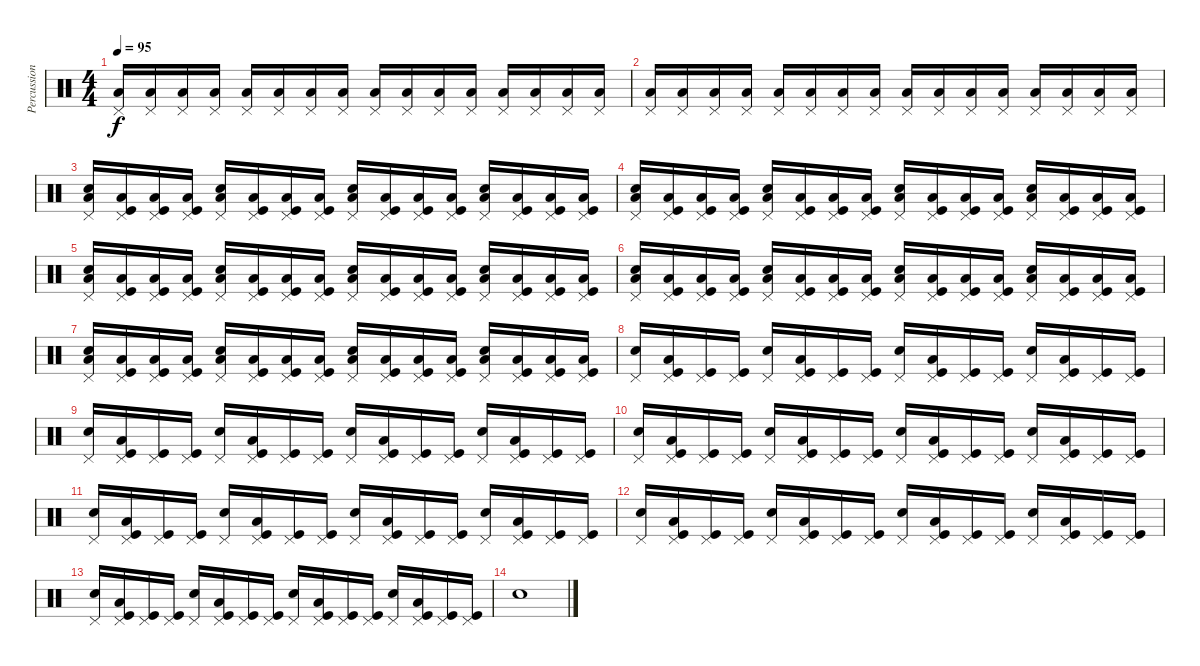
\track ("Percussion" "Percussion") {instrument percussion}
\staff {score}
\articulation defaults
\ts (4 4)
\tempo 95
\clef neutral
\ks c
("Pedal Hi-Hat (hit)" "Low Floor Tom (hit)").16{dy f} ("Pedal Hi-Hat (hit)" "Low Floor Tom (hit)").16 ("Pedal Hi-Hat (hit)" "Low Floor Tom (hit)").16 ("Pedal Hi-Hat (hit)" "Low Floor Tom (hit)").16 ("Pedal Hi-Hat (hit)" "Low Floor Tom (hit)").16 ("Pedal Hi-Hat (hit)" "Low Floor Tom (hit)").16 ("Pedal Hi-Hat (hit)" "Low Floor Tom (hit)").16 ("Pedal Hi-Hat (hit)" "Low Floor Tom (hit)").16 ("Pedal Hi-Hat (hit)" "Low Floor Tom (hit)").16 ("Pedal Hi-Hat (hit)" "Low Floor Tom (hit)").16 ("Pedal Hi-Hat (hit)" "Low Floor Tom (hit)").16 ("Pedal Hi-Hat (hit)" "Low Floor Tom (hit)").16 ("Pedal Hi-Hat (hit)" "Low Floor Tom (hit)").16 ("Pedal Hi-Hat (hit)" "Low Floor Tom (hit)").16 ("Pedal Hi-Hat (hit)" "Low Floor Tom (hit)").16 ("Pedal Hi-Hat (hit)" "Low Floor Tom (hit)").16 |
("Pedal Hi-Hat (hit)" "Low Floor Tom (hit)").16 ("Pedal Hi-Hat (hit)" "Low Floor Tom (hit)").16 ("Pedal Hi-Hat (hit)" "Low Floor Tom (hit)").16 ("Pedal Hi-Hat (hit)" "Low Floor Tom (hit)").16 ("Pedal Hi-Hat (hit)" "Low Floor Tom (hit)").16 ("Pedal Hi-Hat (hit)" "Low Floor Tom (hit)").16 ("Pedal Hi-Hat (hit)" "Low Floor Tom (hit)").16 ("Pedal Hi-Hat (hit)" "Low Floor Tom (hit)").16 ("Pedal Hi-Hat (hit)" "Low Floor Tom (hit)").16 ("Pedal Hi-Hat (hit)" "Low Floor Tom (hit)").16 ("Pedal Hi-Hat (hit)" "Low Floor Tom (hit)").16 ("Pedal Hi-Hat (hit)" "Low Floor Tom (hit)").16 ("Pedal Hi-Hat (hit)" "Low Floor Tom (hit)").16 ("Pedal Hi-Hat (hit)" "Low Floor Tom (hit)").16 ("Pedal Hi-Hat (hit)" "Low Floor Tom (hit)").16 ("Pedal Hi-Hat (hit)" "Low Floor Tom (hit)").16 |
("Pedal Hi-Hat (hit)" "Electric Snare (hit)" "Low Floor Tom (hit)").16 ("Pedal Hi-Hat (hit)" "Kick (hit)" "Low Floor Tom (hit)").16 ("Pedal Hi-Hat (hit)" "Kick (hit)" "Low Floor Tom (hit)").16 ("Pedal Hi-Hat (hit)" "Kick (hit)" "Low Floor Tom (hit)").16 ("Pedal Hi-Hat (hit)" "Electric Snare (hit)" "Low Floor Tom (hit)").16 ("Pedal Hi-Hat (hit)" "Kick (hit)" "Low Floor Tom (hit)").16 ("Pedal Hi-Hat (hit)" "Kick (hit)" "Low Floor Tom (hit)").16 ("Pedal Hi-Hat (hit)" "Kick (hit)" "Low Floor Tom (hit)").16 ("Pedal Hi-Hat (hit)" "Electric Snare (hit)" "Low Floor Tom (hit)").16 ("Pedal Hi-Hat (hit)" "Kick (hit)" "Low Floor Tom (hit)").16 ("Pedal Hi-Hat (hit)" "Kick (hit)" "Low Floor Tom (hit)").16 ("Pedal Hi-Hat (hit)" "Kick (hit)" "Low Floor Tom (hit)").16 ("Pedal Hi-Hat (hit)" "Electric Snare (hit)" "Low Floor Tom (hit)").16 ("Pedal Hi-Hat (hit)" "Kick (hit)" "Low Floor Tom (hit)").16 ("Pedal Hi-Hat (hit)" "Kick (hit)" "Low Floor Tom (hit)").16 ("Pedal Hi-Hat (hit)" "Kick (hit)" "Low Floor Tom (hit)").16 |
("Pedal Hi-Hat (hit)" "Electric Snare (hit)" "Low Floor Tom (hit)").16 ("Pedal Hi-Hat (hit)" "Kick (hit)" "Low Floor Tom (hit)").16 ("Pedal Hi-Hat (hit)" "Kick (hit)" "Low Floor Tom (hit)").16 ("Pedal Hi-Hat (hit)" "Kick (hit)" "Low Floor Tom (hit)").16 ("Pedal Hi-Hat (hit)" "Electric Snare (hit)" "Low Floor Tom (hit)").16 ("Pedal Hi-Hat (hit)" "Kick (hit)" "Low Floor Tom (hit)").16 ("Pedal Hi-Hat (hit)" "Kick (hit)" "Low Floor Tom (hit)").16 ("Pedal Hi-Hat (hit)" "Kick (hit)" "Low Floor Tom (hit)").16 ("Pedal Hi-Hat (hit)" "Electric Snare (hit)" "Low Floor Tom (hit)").16 ("Pedal Hi-Hat (hit)" "Kick (hit)" "Low Floor Tom (hit)").16 ("Pedal Hi-Hat (hit)" "Kick (hit)" "Low Floor Tom (hit)").16 ("Pedal Hi-Hat (hit)" "Kick (hit)" "Low Floor Tom (hit)").16 ("Pedal Hi-Hat (hit)" "Electric Snare (hit)" "Low Floor Tom (hit)").16 ("Pedal Hi-Hat (hit)" "Kick (hit)" "Low Floor Tom (hit)").16 ("Pedal Hi-Hat (hit)" "Kick (hit)" "Low Floor Tom (hit)").16 ("Pedal Hi-Hat (hit)" "Kick (hit)" "Low Floor Tom (hit)").16 |
("Pedal Hi-Hat (hit)" "Electric Snare (hit)" "Low Floor Tom (hit)").16 ("Pedal Hi-Hat (hit)" "Kick (hit)" "Low Floor Tom (hit)").16 ("Pedal Hi-Hat (hit)" "Kick (hit)" "Low Floor Tom (hit)").16 ("Pedal Hi-Hat (hit)" "Kick (hit)" "Low Floor Tom (hit)").16 ("Pedal Hi-Hat (hit)" "Electric Snare (hit)" "Low Floor Tom (hit)").16 ("Pedal Hi-Hat (hit)" "Kick (hit)" "Low Floor Tom (hit)").16 ("Pedal Hi-Hat (hit)" "Kick (hit)" "Low Floor Tom (hit)").16 ("Pedal Hi-Hat (hit)" "Kick (hit)" "Low Floor Tom (hit)").16 ("Pedal Hi-Hat (hit)" "Electric Snare (hit)" "Low Floor Tom (hit)").16 ("Pedal Hi-Hat (hit)" "Kick (hit)" "Low Floor Tom (hit)").16 ("Pedal Hi-Hat (hit)" "Kick (hit)" "Low Floor Tom (hit)").16 ("Pedal Hi-Hat (hit)" "Kick (hit)" "Low Floor Tom (hit)").16 ("Pedal Hi-Hat (hit)" "Electric Snare (hit)" "Low Floor Tom (hit)").16 ("Pedal Hi-Hat (hit)" "Kick (hit)" "Low Floor Tom (hit)").16 ("Pedal Hi-Hat (hit)" "Kick (hit)" "Low Floor Tom (hit)").16 ("Pedal Hi-Hat (hit)" "Kick (hit)" "Low Floor Tom (hit)").16 |
("Pedal Hi-Hat (hit)" "Electric Snare (hit)" "Low Floor Tom (hit)").16 ("Pedal Hi-Hat (hit)" "Kick (hit)" "Low Floor Tom (hit)").16 ("Pedal Hi-Hat (hit)" "Kick (hit)" "Low Floor Tom (hit)").16 ("Pedal Hi-Hat (hit)" "Kick (hit)" "Low Floor Tom (hit)").16 ("Pedal Hi-Hat (hit)" "Electric Snare (hit)" "Low Floor Tom (hit)").16 ("Pedal Hi-Hat (hit)" "Kick (hit)" "Low Floor Tom (hit)").16 ("Pedal Hi-Hat (hit)" "Kick (hit)" "Low Floor Tom (hit)").16 ("Pedal Hi-Hat (hit)" "Kick (hit)" "Low Floor Tom (hit)").16 ("Pedal Hi-Hat (hit)" "Electric Snare (hit)" "Low Floor Tom (hit)").16 ("Pedal Hi-Hat (hit)" "Kick (hit)" "Low Floor Tom (hit)").16 ("Pedal Hi-Hat (hit)" "Kick (hit)" "Low Floor Tom (hit)").16 ("Pedal Hi-Hat (hit)" "Kick (hit)" "Low Floor Tom (hit)").16 ("Pedal Hi-Hat (hit)" "Electric Snare (hit)" "Low Floor Tom (hit)").16 ("Pedal Hi-Hat (hit)" "Kick (hit)" "Low Floor Tom (hit)").16 ("Pedal Hi-Hat (hit)" "Kick (hit)" "Low Floor Tom (hit)").16 ("Pedal Hi-Hat (hit)" "Kick (hit)" "Low Floor Tom (hit)").16 |
("Pedal Hi-Hat (hit)" "Electric Snare (hit)" "Low Floor Tom (hit)").16 ("Pedal Hi-Hat (hit)" "Kick (hit)" "Low Floor Tom (hit)").16 ("Pedal Hi-Hat (hit)" "Kick (hit)" "Low Floor Tom (hit)").16 ("Pedal Hi-Hat (hit)" "Kick (hit)" "Low Floor Tom (hit)").16 ("Pedal Hi-Hat (hit)" "Electric Snare (hit)" "Low Floor Tom (hit)").16 ("Pedal Hi-Hat (hit)" "Kick (hit)" "Low Floor Tom (hit)").16 ("Pedal Hi-Hat (hit)" "Kick (hit)" "Low Floor Tom (hit)").16 ("Pedal Hi-Hat (hit)" "Kick (hit)" "Low Floor Tom (hit)").16 ("Pedal Hi-Hat (hit)" "Electric Snare (hit)" "Low Floor Tom (hit)").16 ("Pedal Hi-Hat (hit)" "Kick (hit)" "Low Floor Tom (hit)").16 ("Pedal Hi-Hat (hit)" "Kick (hit)" "Low Floor Tom (hit)").16 ("Pedal Hi-Hat (hit)" "Kick (hit)" "Low Floor Tom (hit)").16 ("Pedal Hi-Hat (hit)" "Electric Snare (hit)" "Low Floor Tom (hit)").16 ("Pedal Hi-Hat (hit)" "Kick (hit)" "Low Floor Tom (hit)").16 ("Pedal Hi-Hat (hit)" "Kick (hit)" "Low Floor Tom (hit)").16 ("Pedal Hi-Hat (hit)" "Kick (hit)" "Low Floor Tom (hit)").16 |
("Pedal Hi-Hat (hit)" "Electric Snare (hit)").16 ("Pedal Hi-Hat (hit)" "Kick (hit)" "Low Floor Tom (hit)").16 ("Pedal Hi-Hat (hit)" "Kick (hit)").16 ("Pedal Hi-Hat (hit)" "Kick (hit)").16 ("Pedal Hi-Hat (hit)" "Electric Snare (hit)").16 ("Pedal Hi-Hat (hit)" "Kick (hit)" "Low Floor Tom (hit)").16 ("Pedal Hi-Hat (hit)" "Kick (hit)").16 ("Pedal Hi-Hat (hit)" "Kick (hit)").16 ("Pedal Hi-Hat (hit)" "Electric Snare (hit)").16 ("Pedal Hi-Hat (hit)" "Kick (hit)" "Low Floor Tom (hit)").16 ("Pedal Hi-Hat (hit)" "Kick (hit)").16 ("Pedal Hi-Hat (hit)" "Kick (hit)").16 ("Pedal Hi-Hat (hit)" "Electric Snare (hit)").16 ("Pedal Hi-Hat (hit)" "Kick (hit)" "Low Floor Tom (hit)").16 ("Pedal Hi-Hat (hit)" "Kick (hit)").16 ("Pedal Hi-Hat (hit)" "Kick (hit)").16 |
("Pedal Hi-Hat (hit)" "Electric Snare (hit)").16 ("Pedal Hi-Hat (hit)" "Kick (hit)" "Low Floor Tom (hit)").16 ("Pedal Hi-Hat (hit)" "Kick (hit)").16 ("Pedal Hi-Hat (hit)" "Kick (hit)").16 ("Pedal Hi-Hat (hit)" "Electric Snare (hit)").16 ("Pedal Hi-Hat (hit)" "Kick (hit)" "Low Floor Tom (hit)").16 ("Pedal Hi-Hat (hit)" "Kick (hit)").16 ("Pedal Hi-Hat (hit)" "Kick (hit)").16 ("Pedal Hi-Hat (hit)" "Electric Snare (hit)").16 ("Pedal Hi-Hat (hit)" "Kick (hit)" "Low Floor Tom (hit)").16 ("Pedal Hi-Hat (hit)" "Kick (hit)").16 ("Pedal Hi-Hat (hit)" "Kick (hit)").16 ("Pedal Hi-Hat (hit)" "Electric Snare (hit)").16 ("Pedal Hi-Hat (hit)" "Kick (hit)" "Low Floor Tom (hit)").16 ("Pedal Hi-Hat (hit)" "Kick (hit)").16 ("Pedal Hi-Hat (hit)" "Kick (hit)").16 |
("Pedal Hi-Hat (hit)" "Electric Snare (hit)").16 ("Pedal Hi-Hat (hit)" "Kick (hit)" "Low Floor Tom (hit)").16 ("Pedal Hi-Hat (hit)" "Kick (hit)").16 ("Pedal Hi-Hat (hit)" "Kick (hit)").16 ("Pedal Hi-Hat (hit)" "Electric Snare (hit)").16 ("Pedal Hi-Hat (hit)" "Kick (hit)" "Low Floor Tom (hit)").16 ("Pedal Hi-Hat (hit)" "Kick (hit)").16 ("Pedal Hi-Hat (hit)" "Kick (hit)").16 ("Pedal Hi-Hat (hit)" "Electric Snare (hit)").16 ("Pedal Hi-Hat (hit)" "Kick (hit)" "Low Floor Tom (hit)").16 ("Pedal Hi-Hat (hit)" "Kick (hit)").16 ("Pedal Hi-Hat (hit)" "Kick (hit)").16 ("Pedal Hi-Hat (hit)" "Electric Snare (hit)").16 ("Pedal Hi-Hat (hit)" "Kick (hit)" "Low Floor Tom (hit)").16 ("Pedal Hi-Hat (hit)" "Kick (hit)").16 ("Pedal Hi-Hat (hit)" "Kick (hit)").16 |
("Pedal Hi-Hat (hit)" "Electric Snare (hit)").16 ("Pedal Hi-Hat (hit)" "Kick (hit)" "Low Floor Tom (hit)").16 ("Pedal Hi-Hat (hit)" "Kick (hit)").16 ("Pedal Hi-Hat (hit)" "Kick (hit)").16 ("Pedal Hi-Hat (hit)" "Electric Snare (hit)").16 ("Pedal Hi-Hat (hit)" "Kick (hit)" "Low Floor Tom (hit)").16 ("Pedal Hi-Hat (hit)" "Kick (hit)").16 ("Pedal Hi-Hat (hit)" "Kick (hit)").16 ("Pedal Hi-Hat (hit)" "Electric Snare (hit)").16 ("Pedal Hi-Hat (hit)" "Kick (hit)" "Low Floor Tom (hit)").16 ("Pedal Hi-Hat (hit)" "Kick (hit)").16 ("Pedal Hi-Hat (hit)" "Kick (hit)").16 ("Pedal Hi-Hat (hit)" "Electric Snare (hit)").16 ("Pedal Hi-Hat (hit)" "Kick (hit)" "Low Floor Tom (hit)").16 ("Pedal Hi-Hat (hit)" "Kick (hit)").16 ("Pedal Hi-Hat (hit)" "Kick (hit)").16 |
("Pedal Hi-Hat (hit)" "Electric Snare (hit)").16 ("Pedal Hi-Hat (hit)" "Kick (hit)" "Low Floor Tom (hit)").16 ("Pedal Hi-Hat (hit)" "Kick (hit)").16 ("Pedal Hi-Hat (hit)" "Kick (hit)").16 ("Pedal Hi-Hat (hit)" "Electric Snare (hit)").16 ("Pedal Hi-Hat (hit)" "Kick (hit)" "Low Floor Tom (hit)").16 ("Pedal Hi-Hat (hit)" "Kick (hit)").16 ("Pedal Hi-Hat (hit)" "Kick (hit)").16 ("Pedal Hi-Hat (hit)" "Electric Snare (hit)").16 ("Pedal Hi-Hat (hit)" "Kick (hit)" "Low Floor Tom (hit)").16 ("Pedal Hi-Hat (hit)" "Kick (hit)").16 ("Pedal Hi-Hat (hit)" "Kick (hit)").16 ("Pedal Hi-Hat (hit)" "Electric Snare (hit)").16 ("Pedal Hi-Hat (hit)" "Kick (hit)" "Low Floor Tom (hit)").16 ("Pedal Hi-Hat (hit)" "Kick (hit)").16 ("Pedal Hi-Hat (hit)" "Kick (hit)").16 |
("Pedal Hi-Hat (hit)" "Electric Snare (hit)").16 ("Pedal Hi-Hat (hit)" "Kick (hit)" "Low Floor Tom (hit)").16 ("Pedal Hi-Hat (hit)" "Kick (hit)").16 ("Pedal Hi-Hat (hit)" "Kick (hit)").16 ("Pedal Hi-Hat (hit)" "Electric Snare (hit)").16 ("Pedal Hi-Hat (hit)" "Kick (hit)" "Low Floor Tom (hit)").16 ("Pedal Hi-Hat (hit)" "Kick (hit)").16 ("Pedal Hi-Hat (hit)" "Kick (hit)").16 ("Pedal Hi-Hat (hit)" "Electric Snare (hit)").16 ("Pedal Hi-Hat (hit)" "Kick (hit)" "Low Floor Tom (hit)").16 ("Pedal Hi-Hat (hit)" "Kick (hit)").16 ("Pedal Hi-Hat (hit)" "Kick (hit)").16 ("Pedal Hi-Hat (hit)" "Electric Snare (hit)").16 ("Pedal Hi-Hat (hit)" "Kick (hit)" "Low Floor Tom (hit)").16 ("Pedal Hi-Hat (hit)" "Kick (hit)").16 ("Pedal Hi-Hat (hit)" "Kick (hit)").16 |
"Electric Snare (hit)".1
